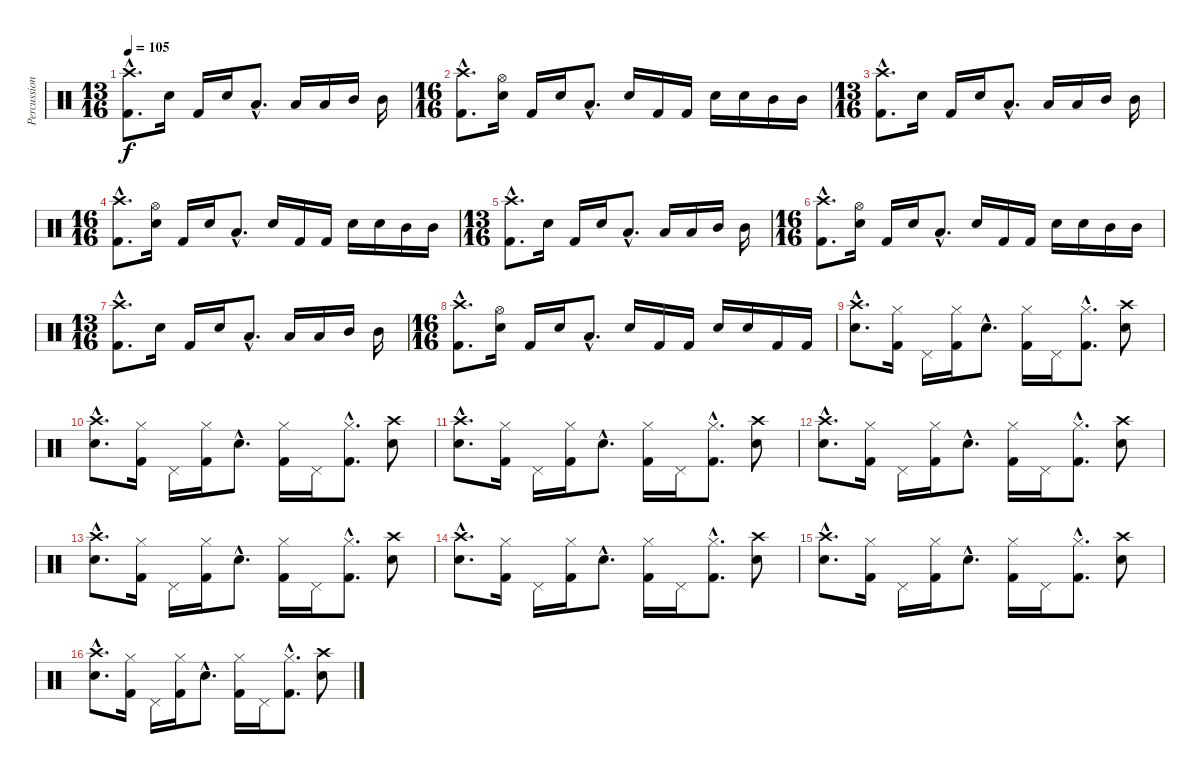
\track ("Percussion" "Percussion") {instrument percussion}
\staff {score}
\articulation defaults
\ts (13 16)
\tempo 105
\clef neutral
\ks c
("Kick (hit) 2"{hac} "Crash high (hit)"{hac}).8{d dy f} "Snare (hit) 2".16 "Kick (hit) 2".16 "Snare (hit) 2".16 "Low Floor Tom (hit)"{hac}.8{d} "Low Tom (hit)".16 "Low Tom (hit)".16 "Mid Tom (hit)".16 "Mid Tom (hit)".16 |
\ts (16 16)
("Kick (hit) 2"{hac} "Crash high (hit)"{hac}).8{d} ("Snare (hit) 2" "Hi-Hat (open)").16 "Kick (hit) 2".16 "Snare (hit) 2".16 "Low Floor Tom (hit)"{hac}.8{d} "Snare (hit) 2".16 "Kick (hit) 2".16 "Kick (hit) 2".16 "Snare (hit) 2".16 "Snare (hit) 2".16 "Mid Tom (hit)".16 "Mid Tom (hit)".16 |
\ts (13 16)
("Kick (hit) 2"{hac} "Crash high (hit)"{hac}).8{d} "Snare (hit) 2".16 "Kick (hit) 2".16 "Snare (hit) 2".16 "Low Floor Tom (hit)"{hac}.8{d} "Low Tom (hit)".16 "Low Tom (hit)".16 "Mid Tom (hit)".16 "Mid Tom (hit)".16 |
\ts (16 16)
("Kick (hit) 2"{hac} "Crash high (hit)"{hac}).8{d} ("Snare (hit) 2" "Hi-Hat (open)").16 "Kick (hit) 2".16 "Snare (hit) 2".16 "Low Floor Tom (hit)"{hac}.8{d} "Snare (hit) 2".16 "Kick (hit) 2".16 "Kick (hit) 2".16 "Snare (hit) 2".16 "Snare (hit) 2".16 "Mid Tom (hit)".16 "Mid Tom (hit)".16 |
\ts (13 16)
("Kick (hit) 2"{hac} "Crash high (hit)"{hac}).8{d} "Snare (hit) 2".16 "Kick (hit) 2".16 "Snare (hit) 2".16 "Low Floor Tom (hit)"{hac}.8{d} "Low Tom (hit)".16 "Low Tom (hit)".16 "Mid Tom (hit)".16 "Mid Tom (hit)".16 |
\ts (16 16)
("Kick (hit) 2"{hac} "Crash high (hit)"{hac}).8{d} ("Snare (hit) 2" "Hi-Hat (open)").16 "Kick (hit) 2".16 "Snare (hit) 2".16 "Low Floor Tom (hit)"{hac}.8{d} "Snare (hit) 2".16 "Kick (hit) 2".16 "Kick (hit) 2".16 "Snare (hit) 2".16 "Snare (hit) 2".16 "Mid Tom (hit)".16 "Mid Tom (hit)".16 |
\ts (13 16)
("Kick (hit) 2"{hac} "Crash high (hit)"{hac}).8{d} "Snare (hit) 2".16 "Kick (hit) 2".16 "Snare (hit) 2".16 "Low Floor Tom (hit)"{hac}.8{d} "Low Tom (hit)".16 "Low Tom (hit)".16 "Mid Tom (hit)".16 "Mid Tom (hit)".16 |
\ts (16 16)
("Kick (hit) 2"{hac} "Crash high (hit)"{hac}).8{d} ("Snare (hit) 2" "Hi-Hat (open)").16 "Kick (hit) 2".16 "Snare (hit) 2".16 "Low Floor Tom (hit)"{hac}.8{d} "Snare (hit) 2".16 "Kick (hit) 2".16 "Kick (hit) 2".16 "Snare (hit) 2".16 "Snare (hit) 2".16 "Kick (hit) 2".16 "Kick (hit) 2".16 |
("Snare (hit) 2"{hac} "Crash high (hit)"{hac}).8{d} ("Kick (hit) 2" "Hi-Hat (closed)").16 "Pedal Hi-Hat (hit)".16 ("Kick (hit) 2" "Hi-Hat (closed)").16 "Snare (hit) 2"{hac}.8{d} ("Kick (hit) 2" "Hi-Hat (closed)").16 "Pedal Hi-Hat (hit)".16 ("Kick (hit) 2"{hac} "Hi-Hat (closed)"{hac}).8{d} ("Snare (hit) 2" "Crash high (hit)").8 |
("Snare (hit) 2"{hac} "Crash high (hit)"{hac}).8{d} ("Kick (hit) 2" "Hi-Hat (closed)").16 "Pedal Hi-Hat (hit)".16 ("Kick (hit) 2" "Hi-Hat (closed)").16 "Snare (hit) 2"{hac}.8{d} ("Kick (hit) 2" "Hi-Hat (closed)").16 "Pedal Hi-Hat (hit)".16 ("Kick (hit) 2"{hac} "Hi-Hat (closed)"{hac}).8{d} ("Snare (hit) 2" "Crash high (hit)").8 |
("Snare (hit) 2"{hac} "Crash high (hit)"{hac}).8{d} ("Kick (hit) 2" "Hi-Hat (closed)").16 "Pedal Hi-Hat (hit)".16 ("Kick (hit) 2" "Hi-Hat (closed)").16 "Snare (hit) 2"{hac}.8{d} ("Kick (hit) 2" "Hi-Hat (closed)").16 "Pedal Hi-Hat (hit)".16 ("Kick (hit) 2"{hac} "Hi-Hat (closed)"{hac}).8{d} ("Snare (hit) 2" "Crash high (hit)").8 |
("Snare (hit) 2"{hac} "Crash high (hit)"{hac}).8{d} ("Kick (hit) 2" "Hi-Hat (closed)").16 "Pedal Hi-Hat (hit)".16 ("Kick (hit) 2" "Hi-Hat (closed)").16 "Snare (hit) 2"{hac}.8{d} ("Kick (hit) 2" "Hi-Hat (closed)").16 "Pedal Hi-Hat (hit)".16 ("Kick (hit) 2"{hac} "Hi-Hat (closed)"{hac}).8{d} ("Snare (hit) 2" "Crash high (hit)").8 |
("Snare (hit) 2"{hac} "Crash high (hit)"{hac}).8{d} ("Kick (hit) 2" "Hi-Hat (closed)").16 "Pedal Hi-Hat (hit)".16 ("Kick (hit) 2" "Hi-Hat (closed)").16 "Snare (hit) 2"{hac}.8{d} ("Kick (hit) 2" "Hi-Hat (closed)").16 "Pedal Hi-Hat (hit)".16 ("Kick (hit) 2"{hac} "Hi-Hat (closed)"{hac}).8{d} ("Snare (hit) 2" "Crash high (hit)").8 |
("Snare (hit) 2"{hac} "Crash high (hit)"{hac}).8{d} ("Kick (hit) 2" "Hi-Hat (closed)").16 "Pedal Hi-Hat (hit)".16 ("Kick (hit) 2" "Hi-Hat (closed)").16 "Snare (hit) 2"{hac}.8{d} ("Kick (hit) 2" "Hi-Hat (closed)").16 "Pedal Hi-Hat (hit)".16 ("Kick (hit) 2"{hac} "Hi-Hat (closed)"{hac}).8{d} ("Snare (hit) 2" "Crash high (hit)").8 |
("Snare (hit) 2"{hac} "Crash high (hit)"{hac}).8{d} ("Kick (hit) 2" "Hi-Hat (closed)").16 "Pedal Hi-Hat (hit)".16 ("Kick (hit) 2" "Hi-Hat (closed)").16 "Snare (hit) 2"{hac}.8{d} ("Kick (hit) 2" "Hi-Hat (closed)").16 "Pedal Hi-Hat (hit)".16 ("Kick (hit) 2"{hac} "Hi-Hat (closed)"{hac}).8{d} ("Snare (hit) 2" "Crash high (hit)").8 |
("Snare (hit) 2"{hac} "Crash high (hit)"{hac}).8{d} ("Kick (hit) 2" "Hi-Hat (closed)").16 "Pedal Hi-Hat (hit)".16 ("Kick (hit) 2" "Hi-Hat (closed)").16 "Snare (hit) 2"{hac}.8{d} ("Kick (hit) 2" "Hi-Hat (closed)").16 "Pedal Hi-Hat (hit)".16 ("Kick (hit) 2"{hac} "Hi-Hat (closed)"{hac}).8{d} ("Snare (hit) 2" "Crash high (hit)").8
